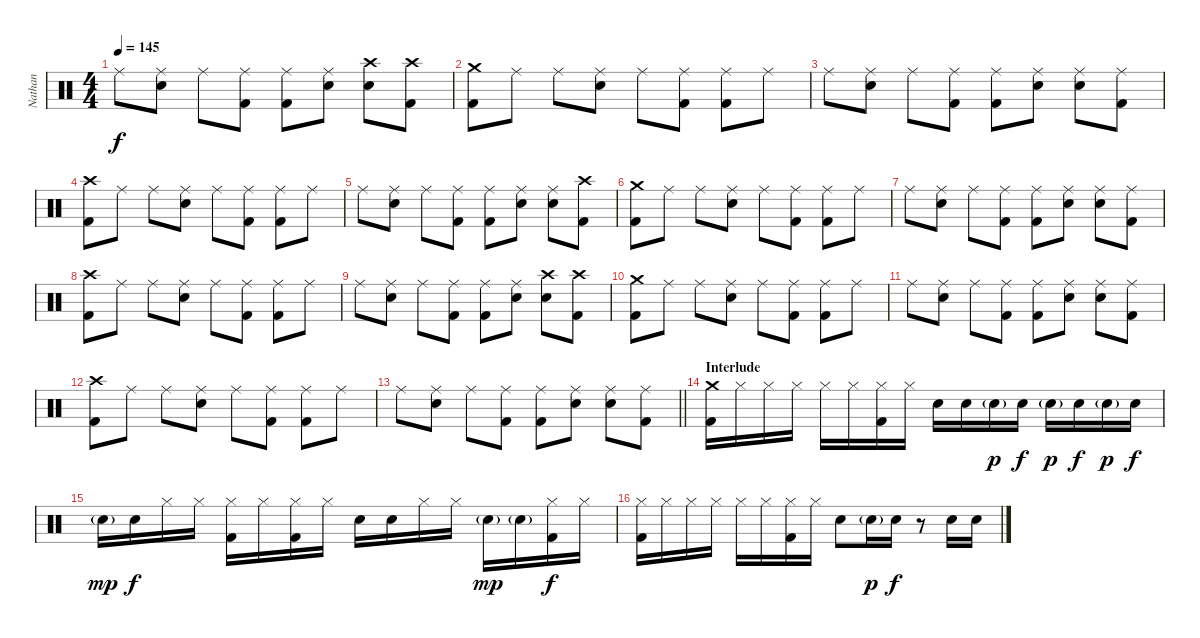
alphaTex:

\track ("Nathan" "Nathan") {instrument percussion}
\staff {score}
\articulation defaults
\ts (4 4)
\tempo 145
\clef neutral
\ks c "Ride (middle)".8{dy f}
("Ride (middle)" "Electric Snare (hit)").8 "Ride (middle)".8 ("Ride (middle)" "Kick (hit) 2").8 ("Ride (middle)" "Kick (hit) 2").8 ("Ride (middle)" "Electric Snare (hit)").8 ("Crash high (hit)" "Electric Snare (hit)").8 ("Crash high (hit)" "Kick (hit) 2").8 |
("Crash medium (hit)" "Kick (hit) 2").8 "Ride (middle)".8 "Ride (middle)".8 ("Ride (middle)" "Electric Snare (hit)").8 "Ride (middle)".8 ("Ride (middle)" "Kick (hit) 2").8 ("Ride (middle)" "Kick (hit) 2").8 "Ride (middle)".8 |
"Ride (middle)".8 ("Ride (middle)" "Electric Snare (hit)").8 "Ride (middle)".8 ("Ride (middle)" "Kick (hit) 2").8 ("Ride (middle)" "Kick (hit) 2").8 ("Ride (middle)" "Electric Snare (hit)").8 ("Ride (middle)" "Electric Snare (hit)").8 ("Ride (middle)" "Kick (hit) 2").8 |
("Crash high (hit)" "Kick (hit) 2").8 "Ride (middle)".8 "Ride (middle)".8 ("Ride (middle)" "Electric Snare (hit)").8 "Ride (middle)".8 ("Ride (middle)" "Kick (hit) 2").8 ("Ride (middle)" "Kick (hit) 2").8 "Ride (middle)".8 |
"Ride (middle)".8 ("Ride (middle)" "Electric Snare (hit)").8 "Ride (middle)".8 ("Ride (middle)" "Kick (hit) 2").8 ("Ride (middle)" "Kick (hit) 2").8 ("Ride (middle)" "Electric Snare (hit)").8 ("Ride (middle)" "Electric Snare (hit)").8 ("Crash high (hit)" "Kick (hit) 2").8 |
("Crash medium (hit)" "Kick (hit) 2").8 "Ride (middle)".8 "Ride (middle)".8 ("Ride (middle)" "Electric Snare (hit)").8 "Ride (middle)".8 ("Ride (middle)" "Kick (hit) 2").8 ("Ride (middle)" "Kick (hit) 2").8 "Ride (middle)".8 |
"Ride (middle)".8 ("Ride (middle)" "Electric Snare (hit)").8 "Ride (middle)".8 ("Ride (middle)" "Kick (hit) 2").8 ("Ride (middle)" "Kick (hit) 2").8 ("Ride (middle)" "Electric Snare (hit)").8 ("Ride (middle)" "Electric Snare (hit)").8 ("Ride (middle)" "Kick (hit) 2").8 |
("Crash high (hit)" "Kick (hit) 2").8 "Ride (middle)".8 "Ride (middle)".8 ("Ride (middle)" "Electric Snare (hit)").8 "Ride (middle)".8 ("Ride (middle)" "Kick (hit) 2").8 ("Ride (middle)" "Kick (hit) 2").8 "Ride (middle)".8 |
"Ride (middle)".8 ("Ride (middle)" "Electric Snare (hit)").8 "Ride (middle)".8 ("Ride (middle)" "Kick (hit) 2").8 ("Ride (middle)" "Kick (hit) 2").8 ("Ride (middle)" "Electric Snare (hit)").8 ("Crash high (hit)" "Electric Snare (hit)").8 ("Crash high (hit)" "Kick (hit) 2").8 |
("Crash medium (hit)" "Kick (hit) 2").8 "Ride (middle)".8 "Ride (middle)".8 ("Ride (middle)" "Electric Snare (hit)").8 "Ride (middle)".8 ("Ride (middle)" "Kick (hit) 2").8 ("Ride (middle)" "Kick (hit) 2").8 "Ride (middle)".8 |
"Ride (middle)".8 ("Ride (middle)" "Electric Snare (hit)").8 "Ride (middle)".8 ("Ride (middle)" "Kick (hit) 2").8 ("Ride (middle)" "Kick (hit) 2").8 ("Ride (middle)" "Electric Snare (hit)").8 ("Ride (middle)" "Electric Snare (hit)").8 ("Ride (middle)" "Kick (hit) 2").8 |
("Crash high (hit)" "Kick (hit) 2").8 "Ride (middle)".8 "Ride (middle)".8 ("Ride (middle)" "Electric Snare (hit)").8 "Ride (middle)".8 ("Ride (middle)" "Kick (hit) 2").8 ("Ride (middle)" "Kick (hit) 2").8 "Ride (middle)".8 |
\barLineRight lightlight "Ride (middle)".8
("Ride (middle)" "Electric Snare (hit)").8 "Ride (middle)".8 ("Ride (middle)" "Kick (hit) 2").8 ("Ride (middle)" "Kick (hit) 2").8 ("Ride (middle)" "Electric Snare (hit)").8 ("Ride (middle)" "Electric Snare (hit)").8 ("Ride (middle)" "Kick (hit) 2").8 |
\section ("" "Interlude")
("Crash medium (hit)" "Kick (hit) 2").16 "Hi-Hat (closed)".16 "Hi-Hat (closed)".16 "Hi-Hat (closed)".16 "Hi-Hat (closed)".16 "Hi-Hat (closed)".16 ("Hi-Hat (closed)" "Kick (hit) 2").16 "Hi-Hat (closed)".16 "Electric Snare (hit)".16 "Electric Snare (hit)".16 "Electric Snare (hit)"{g}.16{dy p} "Electric Snare (hit)".16{dy f} "Electric Snare (hit)"{g}.16{dy p} "Electric Snare (hit)".16{dy f} "Electric Snare (hit)"{g}.16{dy p} "Electric Snare (hit)".16{dy f} |
"Electric Snare (hit)"{g}.16{dy mp} "Electric Snare (hit)".16{dy f} "Hi-Hat (closed)".16 "Hi-Hat (closed)".16 ("Hi-Hat (closed)" "Kick (hit) 2").16 "Hi-Hat (closed)".16 ("Hi-Hat (closed)" "Kick (hit) 2").16 "Hi-Hat (closed)".16 "Electric Snare (hit)".16 "Electric Snare (hit)".16 "Hi-Hat (closed)".16 "Hi-Hat (closed)".16 "Electric Snare (hit)"{g}.16{dy mp} "Electric Snare (hit)"{g}.16 ("Hi-Hat (closed)" "Kick (hit) 2").16{dy f} "Hi-Hat (closed)".16 |
("Hi-Hat (closed)" "Kick (hit) 2").16 "Hi-Hat (closed)".16 "Hi-Hat (closed)".16 "Hi-Hat (closed)".16 "Hi-Hat (closed)".16 "Hi-Hat (closed)".16 ("Hi-Hat (closed)" "Kick (hit) 2").16 "Hi-Hat (closed)".16 "Electric Snare (hit)".8 "Electric Snare (hit)"{g}.16{dy p} "Electric Snare (hit)".16{dy f} r.8 "Electric Snare (hit)".16 "Electric Snare (hit)".16
